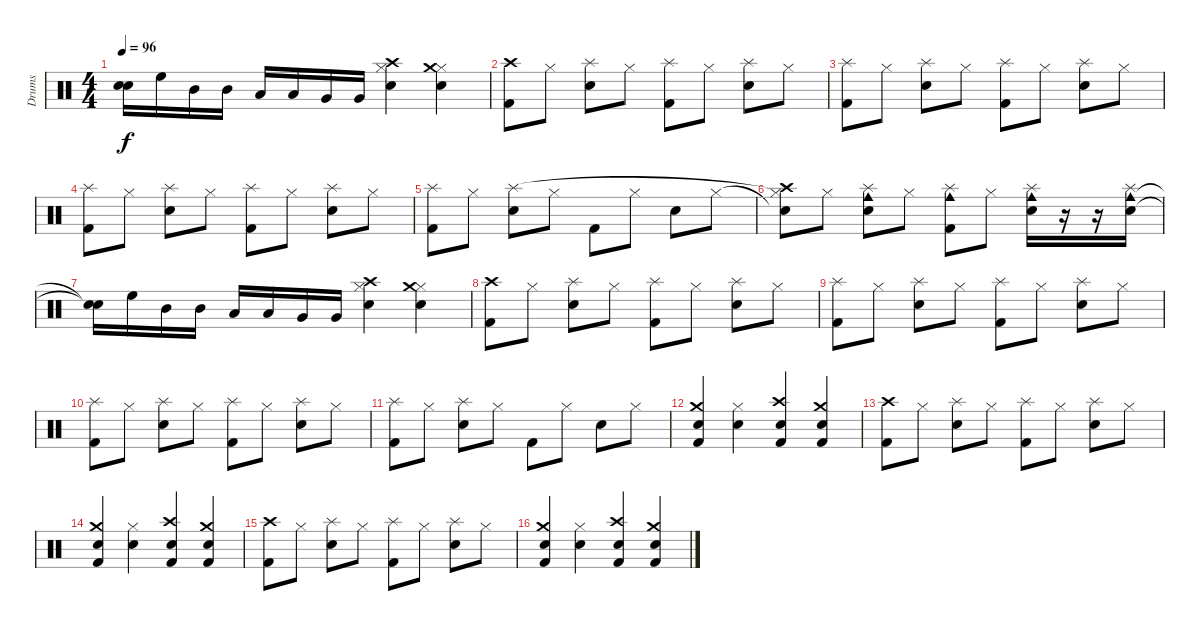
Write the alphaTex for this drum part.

\track ("Drums" "Drums") {instrument percussion}
\staff {score}
\articulation defaults
\ts (4 4)
\tempo 96
\clef neutral
\ks c
("Snare (hit)"{t} "Snare (hit)"{t}).16{dy f} "High Floor Tom (hit)".16 "Mid Tom (hit)".16 "Mid Tom (hit)".16 "Low Tom (hit)".16 "Low Tom (hit)".16 "Very Low Tom (hit)".16 "Very Low Tom (hit)".16 ("Snare (hit) 2" "Hi-Hat (closed)" "Crash high (hit)").4 ("Snare (hit) 2" "Hi-Hat (closed)" "Crash medium (hit)").4 |
("Kick (hit) 2" "Crash high (hit)").8 "Hi-Hat (closed)".8 ("Snare (hit) 2" "Splash (hit)").8 "Hi-Hat (closed)".8 ("Kick (hit) 2" "Splash (hit)").8 "Hi-Hat (closed)".8 ("Snare (hit) 2" "Splash (hit)").8 "Hi-Hat (closed)".8 |
("Kick (hit) 2" "Splash (hit)").8 "Hi-Hat (closed)".8 ("Snare (hit) 2" "Splash (hit)").8 "Hi-Hat (closed)".8 ("Kick (hit) 2" "Splash (hit)").8 "Hi-Hat (closed)".8 ("Snare (hit) 2" "Splash (hit)").8 "Hi-Hat (closed)".8 |
("Kick (hit) 2" "Splash (hit)").8 "Hi-Hat (closed)".8 ("Snare (hit) 2" "Splash (hit)").8 "Hi-Hat (closed)".8 ("Kick (hit) 2" "Splash (hit)").8 "Hi-Hat (closed)".8 ("Snare (hit) 2" "Splash (hit)").8 "Hi-Hat (closed)".8 |
("Kick (hit) 2" "Splash (hit)").8 "Hi-Hat (closed)".8 ("Snare (hit) 2" "Splash (hit)").8 "Hi-Hat (closed)".8 "Kick (hit) 2".8 "Hi-Hat (closed)".8 "Snare (hit) 2".8 "Hi-Hat (closed)".8 |
("Snare (hit) 2"{t} "Hi-Hat (closed)"{t} "Crash high (hit)").8 "Hi-Hat (closed)".8 ("Snare (hit) 2" "Cowbell medium (hit)" "Splash (hit)").8 "Hi-Hat (closed)".8 ("Kick (hit) 2" "Cowbell medium (hit)" "Splash (hit)").8 "Hi-Hat (closed)".8 ("Snare (hit) 2" "Cowbell medium (hit)" "Splash (hit)").16 r.16 r.16 ("Snare (hit) 2" "Cowbell medium (hit)" "Splash (hit)").16 |
("Snare (hit)"{t} "Snare (hit)"{t}).16 "High Floor Tom (hit)".16 "Mid Tom (hit)".16 "Mid Tom (hit)".16 "Low Tom (hit)".16 "Low Tom (hit)".16 "Very Low Tom (hit)".16 "Very Low Tom (hit)".16 ("Snare (hit) 2" "Hi-Hat (closed)" "Crash high (hit)").4 ("Snare (hit) 2" "Hi-Hat (closed)" "Crash medium (hit)").4 |
("Kick (hit) 2" "Crash high (hit)").8 "Hi-Hat (closed)".8 ("Snare (hit) 2" "Splash (hit)").8 "Hi-Hat (closed)".8 ("Kick (hit) 2" "Splash (hit)").8 "Hi-Hat (closed)".8 ("Snare (hit) 2" "Splash (hit)").8 "Hi-Hat (closed)".8 |
("Kick (hit) 2" "Splash (hit)").8 "Hi-Hat (closed)".8 ("Snare (hit) 2" "Splash (hit)").8 "Hi-Hat (closed)".8 ("Kick (hit) 2" "Splash (hit)").8 "Hi-Hat (closed)".8 ("Snare (hit) 2" "Splash (hit)").8 "Hi-Hat (closed)".8 |
("Kick (hit) 2" "Splash (hit)").8 "Hi-Hat (closed)".8 ("Snare (hit) 2" "Splash (hit)").8 "Hi-Hat (closed)".8 ("Kick (hit) 2" "Splash (hit)").8 "Hi-Hat (closed)".8 ("Snare (hit) 2" "Splash (hit)").8 "Hi-Hat (closed)".8 |
("Kick (hit) 2" "Splash (hit)").8 "Hi-Hat (closed)".8 ("Snare (hit) 2" "Splash (hit)").8 "Hi-Hat (closed)".8 "Kick (hit) 2".8 "Hi-Hat (closed)".8 "Snare (hit) 2".8 "Hi-Hat (closed)".8 |
("Snare (hit) 2" "Kick (hit) 2" "Crash medium (hit)").4 ("Snare (hit) 2" "Hi-Hat (closed)").4 ("Snare (hit) 2" "Kick (hit) 2" "Crash high (hit)").4 ("Snare (hit) 2" "Kick (hit) 2" "Crash medium (hit)").4 |
("Kick (hit) 2" "Crash high (hit)").8 "Hi-Hat (closed)".8 ("Snare (hit) 2" "Splash (hit)").8 "Hi-Hat (closed)".8 ("Kick (hit) 2" "Splash (hit)").8 "Hi-Hat (closed)".8 ("Snare (hit) 2" "Splash (hit)").8 "Hi-Hat (closed)".8 |
("Snare (hit) 2" "Kick (hit) 2" "Crash medium (hit)").4 ("Snare (hit) 2" "Hi-Hat (closed)").4 ("Snare (hit) 2" "Kick (hit) 2" "Crash high (hit)").4 ("Snare (hit) 2" "Kick (hit) 2" "Crash medium (hit)").4 |
("Kick (hit) 2" "Crash high (hit)").8 "Hi-Hat (closed)".8 ("Snare (hit) 2" "Splash (hit)").8 "Hi-Hat (closed)".8 ("Kick (hit) 2" "Splash (hit)").8 "Hi-Hat (closed)".8 ("Snare (hit) 2" "Splash (hit)").8 "Hi-Hat (closed)".8 |
("Snare (hit) 2" "Kick (hit) 2" "Crash medium (hit)").4 ("Snare (hit) 2" "Hi-Hat (closed)").4 ("Snare (hit) 2" "Kick (hit) 2" "Crash high (hit)").4 ("Snare (hit) 2" "Kick (hit) 2" "Crash medium (hit)").4
